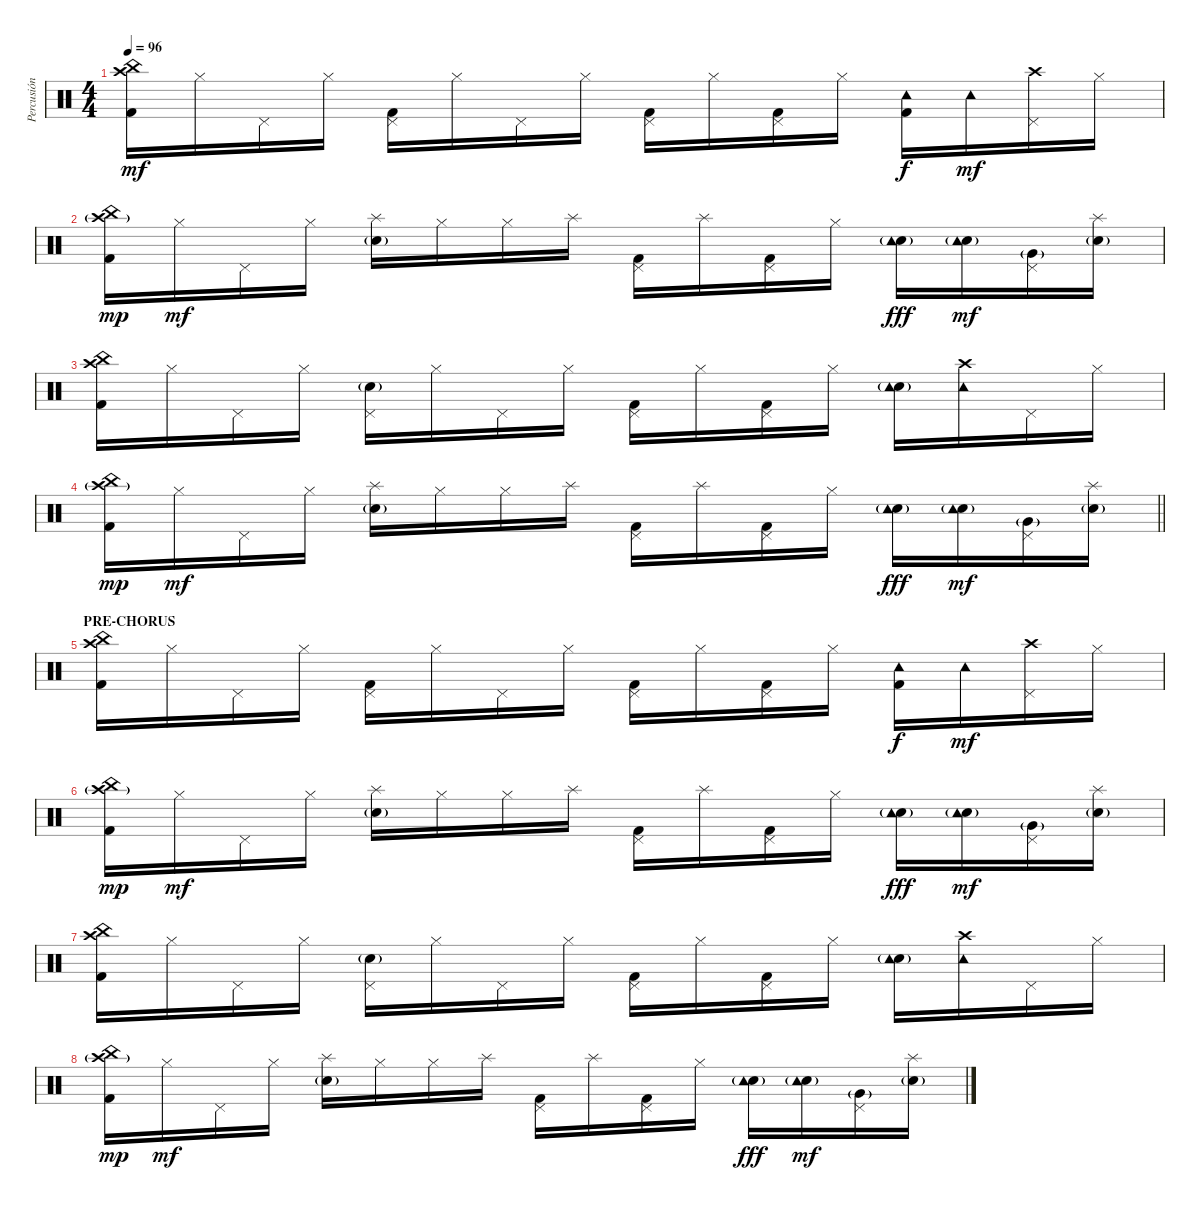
\track ("Percusión" "Percusión") {instrument percussion}
\staff {score}
\articulation defaults
\ts (4 4)
\tempo 96
\clef neutral
\ks c
("China (hit)" "Kick (hit) 2" "Crash high (hit)").16{dy mf} "Hi-Hat (closed)".16 "Pedal Hi-Hat (hit)".16 "Hi-Hat (closed)".16 ("Kick (hit) 2" "Pedal Hi-Hat (hit)").16 "Hi-Hat (closed)".16 "Pedal Hi-Hat (hit)".16 "Hi-Hat (closed)".16 ("Kick (hit) 2" "Pedal Hi-Hat (hit)").16 "Hi-Hat (closed)".16 ("Kick (hit) 2" "Pedal Hi-Hat (hit)").16 "Hi-Hat (closed)".16 ("Kick (hit) 2" "Tambourine (hit)").16{dy f} "Tambourine (hit)".16{dy mf} ("Crash high (hit)" "Pedal Hi-Hat (hit)").16 "Hi-Hat (closed)".16 |
("China (hit)" "Kick (hit) 2" "Crash high (hit)"{g}).16{dy mp} "Hi-Hat (closed)".16{dy mf} "Pedal Hi-Hat (hit)".16 "Hi-Hat (closed)".16 ("Electric Snare (hit)"{g} "Splash (hit)").16 "Hi-Hat (closed)".16 "Hi-Hat (closed)".16 "Splash (hit)".16 ("Kick (hit) 2" "Pedal Hi-Hat (hit)").16 "Splash (hit)".16 ("Kick (hit) 2" "Pedal Hi-Hat (hit)").16 "Hi-Hat (closed)".16 ("Electric Snare (hit)"{g} "Tambourine (hit)").16{dy fff} ("Electric Snare (hit)"{g} "Tambourine (hit)").16{dy mf} ("Very Low Tom (hit)"{g} "Pedal Hi-Hat (hit)").16 ("Electric Snare (hit)"{g} "Splash (hit)").16 |
("China (hit)" "Kick (hit) 2" "Crash high (hit)").16 "Hi-Hat (closed)".16 "Pedal Hi-Hat (hit)".16 "Hi-Hat (closed)".16 ("Electric Snare (hit)"{g} "Pedal Hi-Hat (hit)").16 "Hi-Hat (closed)".16 "Pedal Hi-Hat (hit)".16 "Hi-Hat (closed)".16 ("Kick (hit) 2" "Pedal Hi-Hat (hit)").16 "Hi-Hat (closed)".16 ("Kick (hit) 2" "Pedal Hi-Hat (hit)").16 "Hi-Hat (closed)".16 ("Electric Snare (hit)"{g} "Tambourine (hit)").16 ("Crash high (hit)" "Tambourine (hit)").16 "Pedal Hi-Hat (hit)".16 "Hi-Hat (closed)".16 |
\barLineRight lightlight
("China (hit)" "Kick (hit) 2" "Crash high (hit)"{g}).16{dy mp} "Hi-Hat (closed)".16{dy mf} "Pedal Hi-Hat (hit)".16 "Hi-Hat (closed)".16 ("Electric Snare (hit)"{g} "Splash (hit)").16 "Hi-Hat (closed)".16 "Hi-Hat (closed)".16 "Splash (hit)".16 ("Kick (hit) 2" "Pedal Hi-Hat (hit)").16 "Splash (hit)".16 ("Kick (hit) 2" "Pedal Hi-Hat (hit)").16 "Hi-Hat (closed)".16 ("Electric Snare (hit)"{g} "Tambourine (hit)").16{dy fff} ("Electric Snare (hit)"{g} "Tambourine (hit)").16{dy mf} ("Very Low Tom (hit)"{g} "Pedal Hi-Hat (hit)").16 ("Electric Snare (hit)"{g} "Splash (hit)").16 |
\section ("" "PRE-CHORUS")
("China (hit)" "Kick (hit) 2" "Crash high (hit)").16 "Hi-Hat (closed)".16 "Pedal Hi-Hat (hit)".16 "Hi-Hat (closed)".16 ("Kick (hit) 2" "Pedal Hi-Hat (hit)").16 "Hi-Hat (closed)".16 "Pedal Hi-Hat (hit)".16 "Hi-Hat (closed)".16 ("Kick (hit) 2" "Pedal Hi-Hat (hit)").16 "Hi-Hat (closed)".16 ("Kick (hit) 2" "Pedal Hi-Hat (hit)").16 "Hi-Hat (closed)".16 ("Kick (hit) 2" "Tambourine (hit)").16{dy f} "Tambourine (hit)".16{dy mf} ("Crash high (hit)" "Pedal Hi-Hat (hit)").16 "Hi-Hat (closed)".16 |
("China (hit)" "Kick (hit) 2" "Crash high (hit)"{g}).16{dy mp} "Hi-Hat (closed)".16{dy mf} "Pedal Hi-Hat (hit)".16 "Hi-Hat (closed)".16 ("Electric Snare (hit)"{g} "Splash (hit)").16 "Hi-Hat (closed)".16 "Hi-Hat (closed)".16 "Splash (hit)".16 ("Kick (hit) 2" "Pedal Hi-Hat (hit)").16 "Splash (hit)".16 ("Kick (hit) 2" "Pedal Hi-Hat (hit)").16 "Hi-Hat (closed)".16 ("Electric Snare (hit)"{g} "Tambourine (hit)").16{dy fff} ("Electric Snare (hit)"{g} "Tambourine (hit)").16{dy mf} ("Very Low Tom (hit)"{g} "Pedal Hi-Hat (hit)").16 ("Electric Snare (hit)"{g} "Splash (hit)").16 |
("China (hit)" "Kick (hit) 2" "Crash high (hit)").16 "Hi-Hat (closed)".16 "Pedal Hi-Hat (hit)".16 "Hi-Hat (closed)".16 ("Electric Snare (hit)"{g} "Pedal Hi-Hat (hit)").16 "Hi-Hat (closed)".16 "Pedal Hi-Hat (hit)".16 "Hi-Hat (closed)".16 ("Kick (hit) 2" "Pedal Hi-Hat (hit)").16 "Hi-Hat (closed)".16 ("Kick (hit) 2" "Pedal Hi-Hat (hit)").16 "Hi-Hat (closed)".16 ("Electric Snare (hit)"{g} "Tambourine (hit)").16 ("Crash high (hit)" "Tambourine (hit)").16 "Pedal Hi-Hat (hit)".16 "Hi-Hat (closed)".16 |
("China (hit)" "Kick (hit) 2" "Crash high (hit)"{g}).16{dy mp} "Hi-Hat (closed)".16{dy mf} "Pedal Hi-Hat (hit)".16 "Hi-Hat (closed)".16 ("Electric Snare (hit)"{g} "Splash (hit)").16 "Hi-Hat (closed)".16 "Hi-Hat (closed)".16 "Splash (hit)".16 ("Kick (hit) 2" "Pedal Hi-Hat (hit)").16 "Splash (hit)".16 ("Kick (hit) 2" "Pedal Hi-Hat (hit)").16 "Hi-Hat (closed)".16 ("Electric Snare (hit)"{g} "Tambourine (hit)").16{dy fff} ("Electric Snare (hit)"{g} "Tambourine (hit)").16{dy mf} ("Very Low Tom (hit)"{g} "Pedal Hi-Hat (hit)").16 ("Electric Snare (hit)"{g} "Splash (hit)").16
